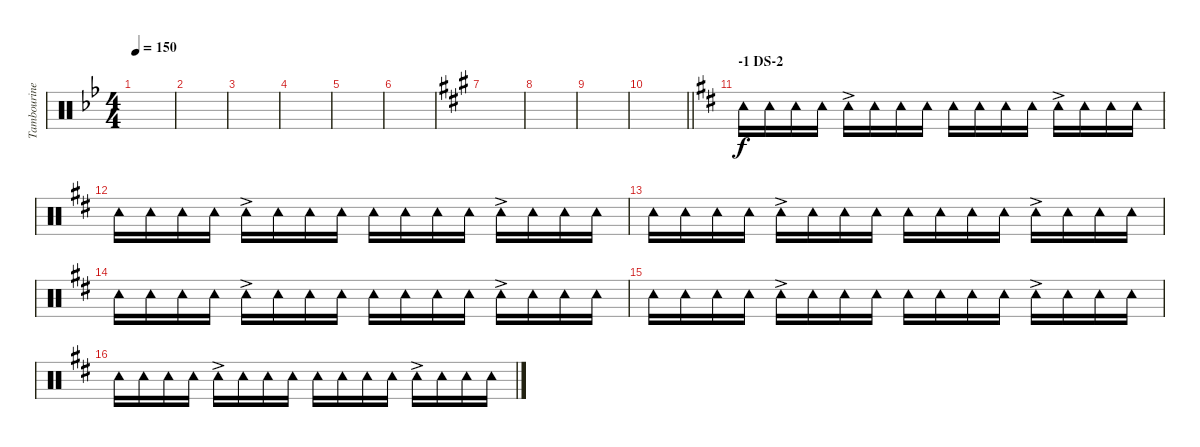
\track ("Tambourine" "Tambourine") {instrument percussion}
\staff {score}
\articulation defaults
\ts (4 4)
\tempo 150
\clef neutral
\ks bb
|
|
|
|
|
|
\ks a
|
|
|
\barLineRight lightlight
|
\section ("" "-1 DS-2")
\ks d "Tambourine (hit)".16 "Tambourine (hit)".16 "Tambourine (hit)".16 "Tambourine (hit)".16 "Tambourine (hit)"{ac}.16 "Tambourine (hit)".16 "Tambourine (hit)".16 "Tambourine (hit)".16 "Tambourine (hit)".16 "Tambourine (hit)".16 "Tambourine (hit)".16 "Tambourine (hit)".16 "Tambourine (hit)"{ac}.16 "Tambourine (hit)".16 "Tambourine (hit)".16 "Tambourine (hit)".16
|
"Tambourine (hit)".16 "Tambourine (hit)".16 "Tambourine (hit)".16 "Tambourine (hit)".16 "Tambourine (hit)"{ac}.16 "Tambourine (hit)".16 "Tambourine (hit)".16 "Tambourine (hit)".16 "Tambourine (hit)".16 "Tambourine (hit)".16 "Tambourine (hit)".16 "Tambourine (hit)".16 "Tambourine (hit)"{ac}.16 "Tambourine (hit)".16 "Tambourine (hit)".16 "Tambourine (hit)".16 |
"Tambourine (hit)".16 "Tambourine (hit)".16 "Tambourine (hit)".16 "Tambourine (hit)".16 "Tambourine (hit)"{ac}.16 "Tambourine (hit)".16 "Tambourine (hit)".16 "Tambourine (hit)".16 "Tambourine (hit)".16 "Tambourine (hit)".16 "Tambourine (hit)".16 "Tambourine (hit)".16 "Tambourine (hit)"{ac}.16 "Tambourine (hit)".16 "Tambourine (hit)".16 "Tambourine (hit)".16 |
"Tambourine (hit)".16 "Tambourine (hit)".16 "Tambourine (hit)".16 "Tambourine (hit)".16 "Tambourine (hit)"{ac}.16 "Tambourine (hit)".16 "Tambourine (hit)".16 "Tambourine (hit)".16 "Tambourine (hit)".16 "Tambourine (hit)".16 "Tambourine (hit)".16 "Tambourine (hit)".16 "Tambourine (hit)"{ac}.16 "Tambourine (hit)".16 "Tambourine (hit)".16 "Tambourine (hit)".16 |
"Tambourine (hit)".16 "Tambourine (hit)".16 "Tambourine (hit)".16 "Tambourine (hit)".16 "Tambourine (hit)"{ac}.16 "Tambourine (hit)".16 "Tambourine (hit)".16 "Tambourine (hit)".16 "Tambourine (hit)".16 "Tambourine (hit)".16 "Tambourine (hit)".16 "Tambourine (hit)".16 "Tambourine (hit)"{ac}.16 "Tambourine (hit)".16 "Tambourine (hit)".16 "Tambourine (hit)".16 |
"Tambourine (hit)".16 "Tambourine (hit)".16 "Tambourine (hit)".16 "Tambourine (hit)".16 "Tambourine (hit)"{ac}.16 "Tambourine (hit)".16 "Tambourine (hit)".16 "Tambourine (hit)".16 "Tambourine (hit)".16 "Tambourine (hit)".16 "Tambourine (hit)".16 "Tambourine (hit)".16 "Tambourine (hit)"{ac}.16 "Tambourine (hit)".16 "Tambourine (hit)".16 "Tambourine (hit)".16
